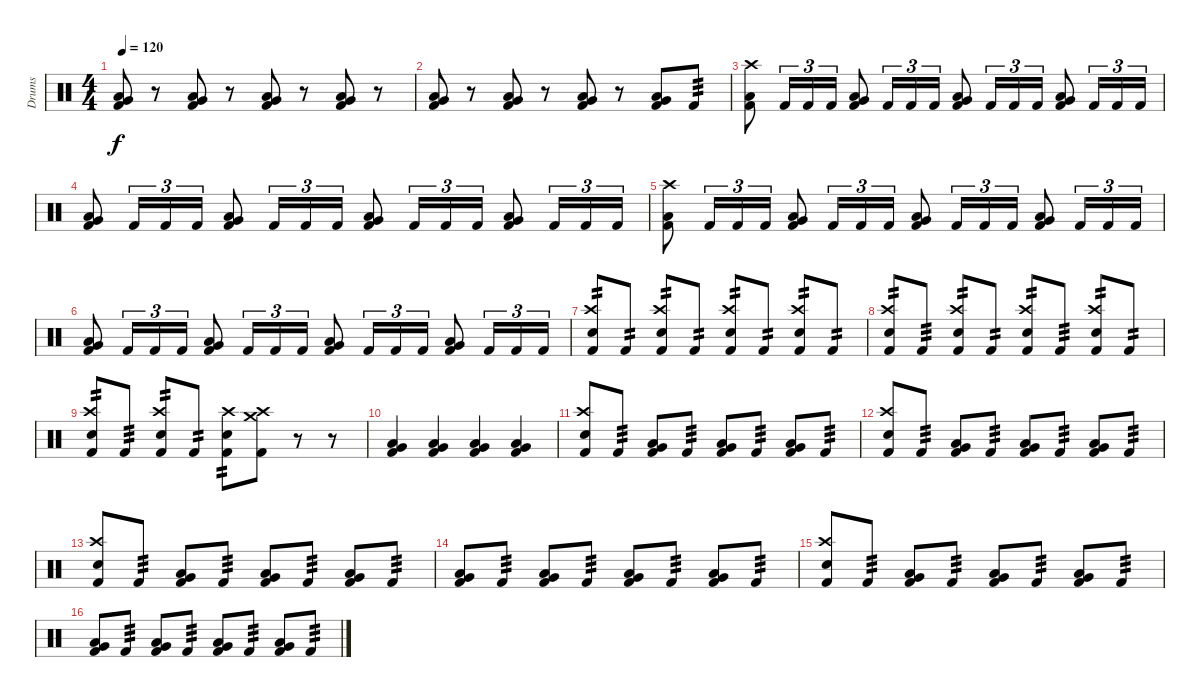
\track ("Drums" "Drums") {instrument percussion}
\staff {score}
\articulation defaults
\ts (4 4)
\tempo 120
\clef neutral
\ks c
("Very Low Tom (hit)" "Low Floor Tom (hit)" "Kick (hit) 2").8{dy f} r.8 ("Very Low Tom (hit)" "Low Floor Tom (hit)" "Kick (hit) 2").8 r.8 ("Very Low Tom (hit)" "Low Floor Tom (hit)" "Kick (hit) 2").8 r.8 ("Very Low Tom (hit)" "Low Floor Tom (hit)" "Kick (hit) 2").8 r.8 |
("Very Low Tom (hit)" "Low Floor Tom (hit)" "Kick (hit) 2").8 r.8 ("Very Low Tom (hit)" "Low Floor Tom (hit)" "Kick (hit) 2").8 r.8 ("Very Low Tom (hit)" "Low Floor Tom (hit)" "Kick (hit) 2").8 r.8 ("Very Low Tom (hit)" "Low Floor Tom (hit)" "Kick (hit) 2").8 "Kick (hit) 2".8{tp 3} |
("Crash high (hit)" "Low Floor Tom (hit)" "Kick (hit) 2").8 "Kick (hit) 2".16{tu (3 2)} "Kick (hit) 2".16{tu (3 2)} "Kick (hit) 2".16{tu (3 2)} ("Very Low Tom (hit)" "Low Floor Tom (hit)" "Kick (hit) 2").8 "Kick (hit) 2".16{tu (3 2)} "Kick (hit) 2".16{tu (3 2)} "Kick (hit) 2".16{tu (3 2)} ("Very Low Tom (hit)" "Low Floor Tom (hit)" "Kick (hit) 2").8 "Kick (hit) 2".16{tu (3 2)} "Kick (hit) 2".16{tu (3 2)} "Kick (hit) 2".16{tu (3 2)} ("Very Low Tom (hit)" "Low Floor Tom (hit)" "Kick (hit) 2").8 "Kick (hit) 2".16{tu (3 2)} "Kick (hit) 2".16{tu (3 2)} "Kick (hit) 2".16{tu (3 2)} |
("Very Low Tom (hit)" "Low Floor Tom (hit)" "Kick (hit) 2").8 "Kick (hit) 2".16{tu (3 2)} "Kick (hit) 2".16{tu (3 2)} "Kick (hit) 2".16{tu (3 2)} ("Very Low Tom (hit)" "Low Floor Tom (hit)" "Kick (hit) 2").8 "Kick (hit) 2".16{tu (3 2)} "Kick (hit) 2".16{tu (3 2)} "Kick (hit) 2".16{tu (3 2)} ("Very Low Tom (hit)" "Low Floor Tom (hit)" "Kick (hit) 2").8 "Kick (hit) 2".16{tu (3 2)} "Kick (hit) 2".16{tu (3 2)} "Kick (hit) 2".16{tu (3 2)} ("Very Low Tom (hit)" "Low Floor Tom (hit)" "Kick (hit) 2").8 "Kick (hit) 2".16{tu (3 2)} "Kick (hit) 2".16{tu (3 2)} "Kick (hit) 2".16{tu (3 2)} |
("Crash high (hit)" "Low Floor Tom (hit)" "Kick (hit) 2").8 "Kick (hit) 2".16{tu (3 2)} "Kick (hit) 2".16{tu (3 2)} "Kick (hit) 2".16{tu (3 2)} ("Very Low Tom (hit)" "Low Floor Tom (hit)" "Kick (hit) 2").8 "Kick (hit) 2".16{tu (3 2)} "Kick (hit) 2".16{tu (3 2)} "Kick (hit) 2".16{tu (3 2)} ("Very Low Tom (hit)" "Low Floor Tom (hit)" "Kick (hit) 2").8 "Kick (hit) 2".16{tu (3 2)} "Kick (hit) 2".16{tu (3 2)} "Kick (hit) 2".16{tu (3 2)} ("Very Low Tom (hit)" "Low Floor Tom (hit)" "Kick (hit) 2").8 "Kick (hit) 2".16{tu (3 2)} "Kick (hit) 2".16{tu (3 2)} "Kick (hit) 2".16{tu (3 2)} |
("Very Low Tom (hit)" "Low Floor Tom (hit)" "Kick (hit) 2").8 "Kick (hit) 2".16{tu (3 2)} "Kick (hit) 2".16{tu (3 2)} "Kick (hit) 2".16{tu (3 2)} ("Very Low Tom (hit)" "Low Floor Tom (hit)" "Kick (hit) 2").8 "Kick (hit) 2".16{tu (3 2)} "Kick (hit) 2".16{tu (3 2)} "Kick (hit) 2".16{tu (3 2)} ("Very Low Tom (hit)" "Low Floor Tom (hit)" "Kick (hit) 2").8 "Kick (hit) 2".16{tu (3 2)} "Kick (hit) 2".16{tu (3 2)} "Kick (hit) 2".16{tu (3 2)} ("Very Low Tom (hit)" "Low Floor Tom (hit)" "Kick (hit) 2").8 "Kick (hit) 2".16{tu (3 2)} "Kick (hit) 2".16{tu (3 2)} "Kick (hit) 2".16{tu (3 2)} |
("Crash high (hit)" "Snare (hit) 2" "Kick (hit) 2").8{tp 2} "Kick (hit) 2".8{tp 2} ("Crash high (hit)" "Snare (hit) 2" "Kick (hit) 2").8{tp 2} "Kick (hit) 2".8{tp 2} ("Crash high (hit)" "Snare (hit) 2" "Kick (hit) 2").8{tp 2} "Kick (hit) 2".8{tp 2} ("Crash high (hit)" "Snare (hit) 2" "Kick (hit) 2").8{tp 2} "Kick (hit) 2".8{tp 2} |
("Crash high (hit)" "Snare (hit) 2" "Kick (hit) 2").8{tp 2} "Kick (hit) 2".8{tp 3} ("Crash high (hit)" "Snare (hit) 2" "Kick (hit) 2").8{tp 2} "Kick (hit) 2".8{tp 2} ("Crash high (hit)" "Snare (hit) 2" "Kick (hit) 2").8{tp 2} "Kick (hit) 2".8{tp 3} ("Crash high (hit)" "Snare (hit) 2" "Kick (hit) 2").8{tp 2} "Kick (hit) 2".8{tp 2} |
("Crash high (hit)" "Snare (hit) 2" "Kick (hit) 2").8{tp 2} "Kick (hit) 2".8{tp 3} ("Crash high (hit)" "Snare (hit) 2" "Kick (hit) 2").8{tp 2} "Kick (hit) 2".8{tp 2} ("Crash high (hit)" "Snare (hit) 2" "Kick (hit) 2").8{tp 2} ("Crash medium (hit)" "Crash high (hit)" "Kick (hit) 2").8 r.8 r.8 |
("Very Low Tom (hit)" "Low Floor Tom (hit)" "Kick (hit) 2").4 ("Very Low Tom (hit)" "Low Floor Tom (hit)" "Kick (hit) 2").4 ("Very Low Tom (hit)" "Low Floor Tom (hit)" "Kick (hit) 2").4 ("Very Low Tom (hit)" "Low Floor Tom (hit)" "Kick (hit) 2").4 |
("Crash high (hit)" "Snare (hit) 2" "Kick (hit) 2").8 "Kick (hit) 2".8{tp 3} ("Very Low Tom (hit)" "Low Floor Tom (hit)" "Kick (hit) 2").8 "Kick (hit) 2".8{tp 3} ("Very Low Tom (hit)" "Low Floor Tom (hit)" "Kick (hit) 2").8 "Kick (hit) 2".8{tp 3} ("Very Low Tom (hit)" "Low Floor Tom (hit)" "Kick (hit) 2").8 "Kick (hit) 2".8{tp 3} |
("Crash high (hit)" "Snare (hit) 2" "Kick (hit) 2").8 "Kick (hit) 2".8{tp 3} ("Very Low Tom (hit)" "Low Floor Tom (hit)" "Kick (hit) 2").8 "Kick (hit) 2".8{tp 3} ("Very Low Tom (hit)" "Low Floor Tom (hit)" "Kick (hit) 2").8 "Kick (hit) 2".8{tp 3} ("Very Low Tom (hit)" "Low Floor Tom (hit)" "Kick (hit) 2").8 "Kick (hit) 2".8{tp 3} |
("Crash high (hit)" "Snare (hit) 2" "Kick (hit) 2").8 "Kick (hit) 2".8{tp 3} ("Very Low Tom (hit)" "Low Floor Tom (hit)" "Kick (hit) 2").8 "Kick (hit) 2".8{tp 3} ("Very Low Tom (hit)" "Low Floor Tom (hit)" "Kick (hit) 2").8 "Kick (hit) 2".8{tp 3} ("Very Low Tom (hit)" "Low Floor Tom (hit)" "Kick (hit) 2").8 "Kick (hit) 2".8{tp 3} |
("Very Low Tom (hit)" "Low Floor Tom (hit)" "Kick (hit) 2").8 "Kick (hit) 2".8{tp 3} ("Very Low Tom (hit)" "Low Floor Tom (hit)" "Kick (hit) 2").8 "Kick (hit) 2".8{tp 3} ("Very Low Tom (hit)" "Low Floor Tom (hit)" "Kick (hit) 2").8 "Kick (hit) 2".8{tp 3} ("Very Low Tom (hit)" "Low Floor Tom (hit)" "Kick (hit) 2").8 "Kick (hit) 2".8{tp 3} |
("Crash high (hit)" "Snare (hit) 2" "Kick (hit) 2").8 "Kick (hit) 2".8{tp 3} ("Very Low Tom (hit)" "Low Floor Tom (hit)" "Kick (hit) 2").8 "Kick (hit) 2".8{tp 3} ("Very Low Tom (hit)" "Low Floor Tom (hit)" "Kick (hit) 2").8 "Kick (hit) 2".8{tp 3} ("Very Low Tom (hit)" "Low Floor Tom (hit)" "Kick (hit) 2").8 "Kick (hit) 2".8{tp 3} |
("Very Low Tom (hit)" "Low Floor Tom (hit)" "Kick (hit) 2").8 "Kick (hit) 2".8{tp 3} ("Very Low Tom (hit)" "Low Floor Tom (hit)" "Kick (hit) 2").8 "Kick (hit) 2".8{tp 3} ("Very Low Tom (hit)" "Low Floor Tom (hit)" "Kick (hit) 2").8 "Kick (hit) 2".8{tp 3} ("Very Low Tom (hit)" "Low Floor Tom (hit)" "Kick (hit) 2").8 "Kick (hit) 2".8{tp 3}
